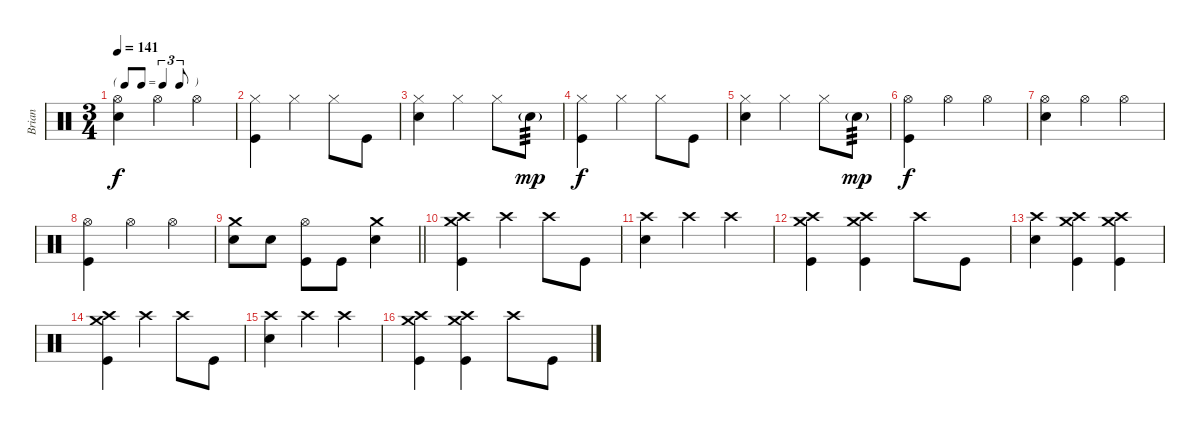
\track ("Brian" "Brian") {instrument percussion}
\staff {score}
\articulation defaults
\ts (3 4)
\tf triplet8th
\tempo 141
\clef neutral
\ks c
("Hi-Hat (open)" "Electric Snare (hit)").4{dy f} "Hi-Hat (open)".4 "Hi-Hat (open)".4 |
("Hi-Hat (closed)" "Kick (hit)").4 "Hi-Hat (closed)".4 "Hi-Hat (closed)".8 "Kick (hit)".8 |
("Hi-Hat (closed)" "Electric Snare (hit)").4 "Hi-Hat (closed)".4 "Hi-Hat (closed)".8 "Electric Snare (hit)"{g}.8{tp 3 dy mp volume 7} |
("Hi-Hat (closed)" "Kick (hit)").4{dy f volume 16} "Hi-Hat (closed)".4 "Hi-Hat (closed)".8 "Kick (hit)".8 |
("Hi-Hat (closed)" "Electric Snare (hit)").4 "Hi-Hat (closed)".4 "Hi-Hat (closed)".8 "Electric Snare (hit)"{g}.8{tp 3 dy mp volume 7} |
("Hi-Hat (open)" "Kick (hit)").4{dy f volume 16} "Hi-Hat (open)".4 "Hi-Hat (open)".4 |
("Hi-Hat (open)" "Electric Snare (hit)").4 "Hi-Hat (open)".4 "Hi-Hat (open)".4 |
("Hi-Hat (open)" "Kick (hit)").4{volume 16} "Hi-Hat (open)".4 "Hi-Hat (open)".4 |
\barLineRight lightlight
("Crash medium (hit)" "Electric Snare (hit)").8 "Electric Snare (hit)".8 ("Hi-Hat (open)" "Kick (hit)").8 "Kick (hit)".8 ("Crash medium (hit)" "Electric Snare (hit)").4 |
("Crash medium (hit)" "Crash high (hit)" "Kick (hit)").4 "Crash high (hit)".4 "Crash high (hit)".8 "Kick (hit)".8 |
("Crash high (hit)" "Electric Snare (hit)").4 "Crash high (hit)".4 "Crash high (hit)".4 |
("Crash medium (hit)" "Crash high (hit)" "Kick (hit)").4 ("Crash medium (hit)" "Crash high (hit)" "Kick (hit)").4 "Crash high (hit)".8 "Kick (hit)".8 |
("Crash high (hit)" "Electric Snare (hit)").4 ("Crash medium (hit)" "Crash high (hit)" "Kick (hit)").4 ("Crash medium (hit)" "Crash high (hit)" "Kick (hit)").4 |
("Crash medium (hit)" "Crash high (hit)" "Kick (hit)").4 "Crash high (hit)".4 "Crash high (hit)".8 "Kick (hit)".8 |
("Crash high (hit)" "Electric Snare (hit)").4 "Crash high (hit)".4 "Crash high (hit)".4 |
("Crash medium (hit)" "Crash high (hit)" "Kick (hit)").4 ("Crash medium (hit)" "Crash high (hit)" "Kick (hit)").4 "Crash high (hit)".8 "Kick (hit)".8
